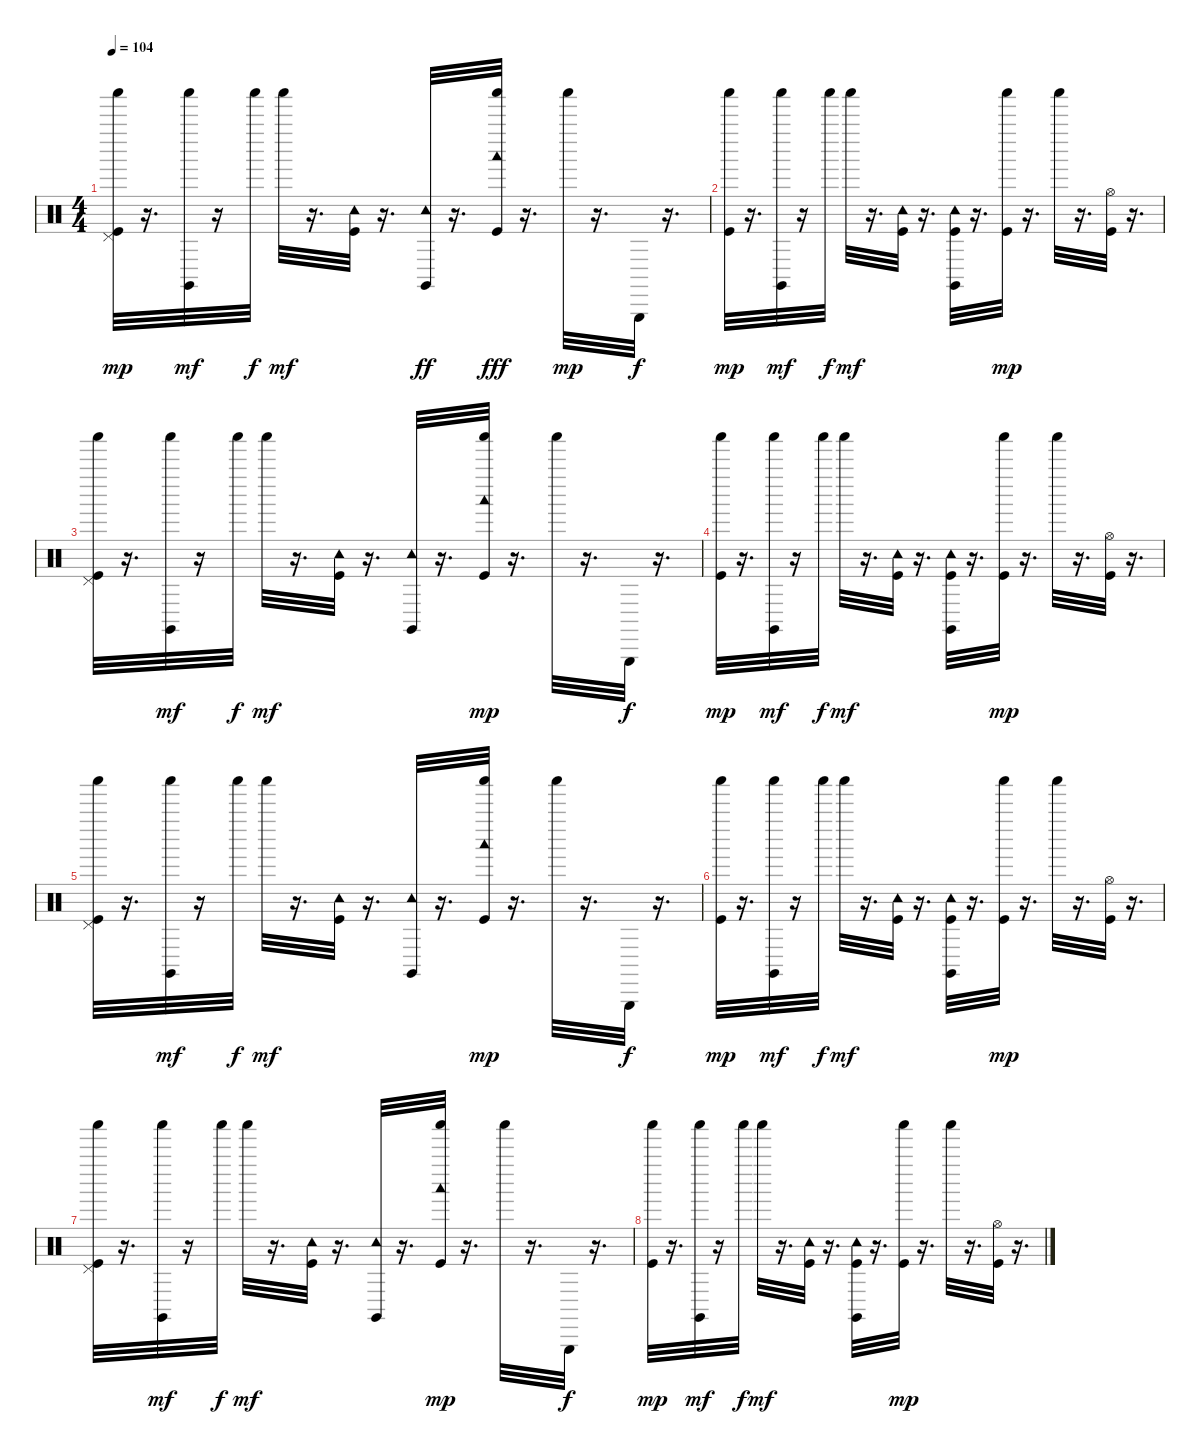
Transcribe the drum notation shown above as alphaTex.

\track "" {instrument percussion}
\staff {score}
\articulation defaults
\ts (4 4)
\tempo 104
\clef neutral
\ks c
("Pedal Hi-Hat (hit)" "Kick (hit)" "Shaker (hit)").32{dy mp} r.16{d} ("Claves (hit)" "Shaker (hit)").32{dy mf} r.16 "Shaker (hit)".32{dy f} "Shaker (hit)".32{dy mf} r.16{d} ("Tambourine (hit)" "Kick (hit)").32 r.16{d} ("Tambourine (hit)" "Claves (hit)").32{dy ff} r.16{d} ("Shaker (hit)" "Woodblock low (hit)" "Kick (hit)").32{dy fff} r.16{d} "Shaker (hit)".32{dy mp} r.16{d} "Triangle (hit)".32{dy f} r.16{d} |
("Shaker (hit)" "Kick (hit)").32{dy mp} r.16{d} ("Claves (hit)" "Shaker (hit)").32{dy mf} r.16 "Shaker (hit)".32{dy f} "Shaker (hit)".32{dy mf} r.16{d} ("Kick (hit)" "Tambourine (hit)").32 r.16{d} ("Claves (hit)" "Tambourine (hit)" "Kick (hit)").32 r.16{d} ("Shaker (hit)" "Kick (hit)").32{dy mp} r.16{d} "Shaker (hit)".32 r.16{d} ("Hi-Hat (open)" "Kick (hit)").32 r.16{d} |
("Pedal Hi-Hat (hit)" "Kick (hit)" "Shaker (hit)").32 r.16{d} ("Claves (hit)" "Shaker (hit)").32{dy mf} r.16 "Shaker (hit)".32{dy f} "Shaker (hit)".32{dy mf} r.16{d} ("Kick (hit)" "Tambourine (hit)").32 r.16{d} ("Claves (hit)" "Tambourine (hit)").32 r.16{d} ("Woodblock low (hit)" "Kick (hit)" "Shaker (hit)").32{dy mp} r.16{d} "Shaker (hit)".32 r.16{d} "Triangle (hit)".32{dy f} r.16{d} |
("Shaker (hit)" "Kick (hit)").32{dy mp} r.16{d} ("Claves (hit)" "Shaker (hit)").32{dy mf} r.16 "Shaker (hit)".32{dy f} "Shaker (hit)".32{dy mf} r.16{d} ("Kick (hit)" "Tambourine (hit)").32 r.16{d} ("Claves (hit)" "Tambourine (hit)" "Kick (hit)").32 r.16{d} ("Shaker (hit)" "Kick (hit)").32{dy mp} r.16{d} "Shaker (hit)".32 r.16{d} ("Hi-Hat (open)" "Kick (hit)").32 r.16{d} |
("Pedal Hi-Hat (hit)" "Kick (hit)" "Shaker (hit)").32 r.16{d} ("Claves (hit)" "Shaker (hit)").32{dy mf} r.16 "Shaker (hit)".32{dy f} "Shaker (hit)".32{dy mf} r.16{d} ("Kick (hit)" "Tambourine (hit)").32 r.16{d} ("Claves (hit)" "Tambourine (hit)").32 r.16{d} ("Woodblock low (hit)" "Kick (hit)" "Shaker (hit)").32{dy mp} r.16{d} "Shaker (hit)".32 r.16{d} "Triangle (hit)".32{dy f} r.16{d} |
("Shaker (hit)" "Kick (hit)").32{dy mp} r.16{d} ("Claves (hit)" "Shaker (hit)").32{dy mf} r.16 "Shaker (hit)".32{dy f} "Shaker (hit)".32{dy mf} r.16{d} ("Kick (hit)" "Tambourine (hit)").32 r.16{d} ("Claves (hit)" "Tambourine (hit)" "Kick (hit)").32 r.16{d} ("Shaker (hit)" "Kick (hit)").32{dy mp} r.16{d} "Shaker (hit)".32 r.16{d} ("Hi-Hat (open)" "Kick (hit)").32 r.16{d} |
("Pedal Hi-Hat (hit)" "Kick (hit)" "Shaker (hit)").32 r.16{d} ("Claves (hit)" "Shaker (hit)").32{dy mf} r.16 "Shaker (hit)".32{dy f} "Shaker (hit)".32{dy mf} r.16{d} ("Kick (hit)" "Tambourine (hit)").32 r.16{d} ("Claves (hit)" "Tambourine (hit)").32 r.16{d} ("Woodblock low (hit)" "Kick (hit)" "Shaker (hit)").32{dy mp} r.16{d} "Shaker (hit)".32 r.16{d} "Triangle (hit)".32{dy f} r.16{d} |
("Shaker (hit)" "Kick (hit)").32{dy mp} r.16{d} ("Claves (hit)" "Shaker (hit)").32{dy mf} r.16 "Shaker (hit)".32{dy f} "Shaker (hit)".32{dy mf} r.16{d} ("Kick (hit)" "Tambourine (hit)").32 r.16{d} ("Claves (hit)" "Tambourine (hit)" "Kick (hit)").32 r.16{d} ("Shaker (hit)" "Kick (hit)").32{dy mp} r.16{d} "Shaker (hit)".32 r.16{d} ("Hi-Hat (open)" "Kick (hit)").32 r.16{d}
